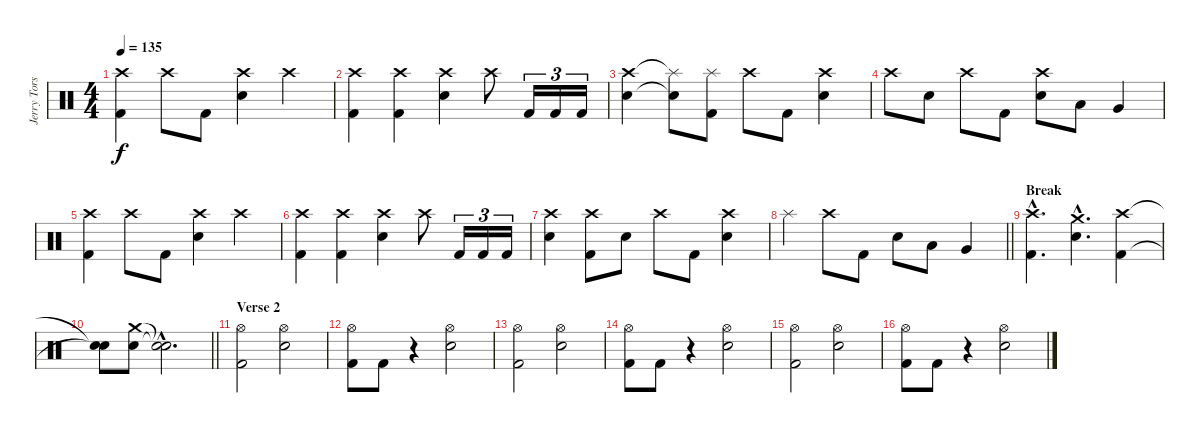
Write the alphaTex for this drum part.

\track ("Jerry Torstensson" "Jerry Tors") {instrument percussion}
\staff {score}
\articulation defaults
\ts (4 4)
\tempo 135
\clef neutral
\ks c
("Crash high (hit)" "Kick (hit) 2").4{dy f} "Crash high (hit)".8 "Kick (hit) 2".8 ("Crash high (hit)" "Snare (hit) 2").4 "Crash high (hit)".4 |
("Crash high (hit)" "Kick (hit) 2").4 ("Crash high (hit)" "Kick (hit) 2").4 ("Crash high (hit)" "Snare (hit) 2").4 "Crash high (hit)".8 "Kick (hit) 2".16{tu (3 2)} "Kick (hit) 2".16{tu (3 2)} "Kick (hit) 2".16{tu (3 2)} |
("Crash high (hit)" "Snare (hit) 2").4 ("Splash (hit)"{t} "Snare (hit)"{t}).8 ("Splash (hit)" "Kick (hit) 2").8 "Crash high (hit)".8 "Kick (hit) 2".8 ("Crash high (hit)" "Snare (hit) 2").4 |
"Crash high (hit)".8 "Snare (hit) 2".8 "Crash high (hit)".8 "Kick (hit) 2".8 ("Crash high (hit)" "Snare (hit) 2").8 "Low Tom (hit)".8 "Very Low Tom (hit)".4 |
("Crash high (hit)" "Kick (hit) 2").4 "Crash high (hit)".8 "Kick (hit) 2".8 ("Crash high (hit)" "Snare (hit) 2").4 "Crash high (hit)".4 |
("Crash high (hit)" "Kick (hit) 2").4 ("Crash high (hit)" "Kick (hit) 2").4 ("Crash high (hit)" "Snare (hit) 2").4 "Crash high (hit)".8 "Kick (hit) 2".16{tu (3 2)} "Kick (hit) 2".16{tu (3 2)} "Kick (hit) 2".16{tu (3 2)} |
("Crash high (hit)" "Snare (hit) 2").4 ("Crash high (hit)" "Kick (hit) 2").8 "Snare (hit) 2".8 "Crash high (hit)".8 "Kick (hit) 2".8 ("Crash high (hit)" "Snare (hit) 2").4 |
\barLineRight lightlight "Splash (hit)".4 "Crash high (hit)".8 "Kick (hit) 2".8 "Snare (hit) 2".8 "Low Tom (hit)".8 "Very Low Tom (hit)".4
|
\section ("" "Break")
("Crash high (hit)"{hac} "Kick (hit) 2"{hac}).4{d} ("Crash medium (hit)"{hac} "Snare (hit) 2"{hac}).4{d} ("Crash high (hit)" "Kick (hit) 2").4 |
\barLineRight lightlight
("Snare (hit)"{t} "Snare (hit)"{t}).8 ("Crash medium (hit)" "Snare (hit) 2").8 ("Snare (hit)"{hac t} "Snare (hit)"{hac t}).2{d} |
\section ("" "Verse 2")
("Hi-Hat (open)" "Kick (hit) 2").2 ("Hi-Hat (open)" "Snare (hit) 2").2 |
("Hi-Hat (open)" "Kick (hit) 2").8 "Kick (hit) 2".8 r.4 ("Hi-Hat (open)" "Snare (hit) 2").2 |
("Hi-Hat (open)" "Kick (hit) 2").2 ("Hi-Hat (open)" "Snare (hit) 2").2 |
("Hi-Hat (open)" "Kick (hit) 2").8 "Kick (hit) 2".8 r.4 ("Hi-Hat (open)" "Snare (hit) 2").2 |
("Hi-Hat (open)" "Kick (hit) 2").2 ("Hi-Hat (open)" "Snare (hit) 2").2 |
("Hi-Hat (open)" "Kick (hit) 2").8 "Kick (hit) 2".8 r.4 ("Hi-Hat (open)" "Snare (hit) 2").2
